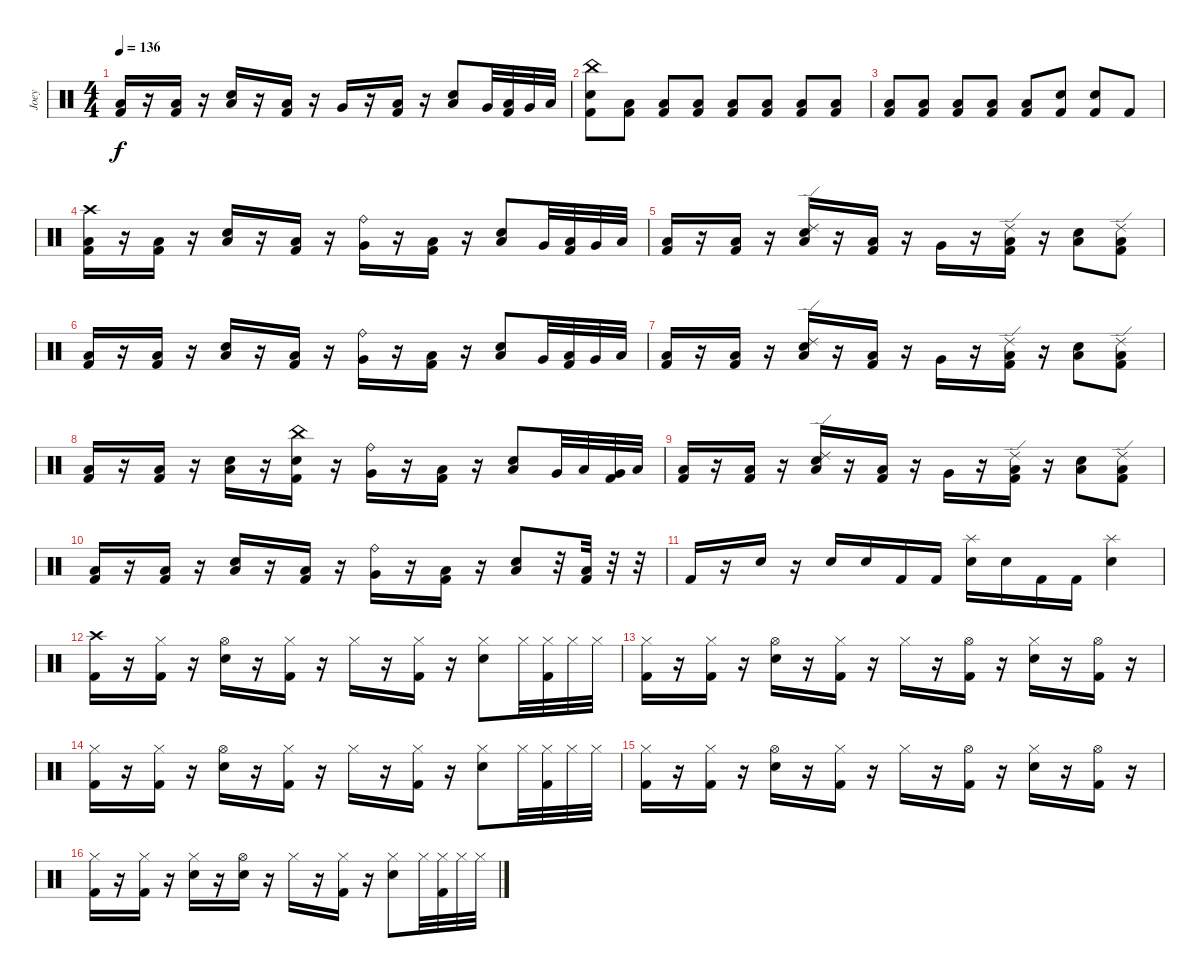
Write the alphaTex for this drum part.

\track ("Joey" "Joey") {instrument percussion}
\staff {score}
\articulation defaults
\ts (4 4)
\tempo 136
\clef neutral
\ks c
("Low Floor Tom (hit)" "Kick (hit) 2").16{dy f} r.16 ("Low Floor Tom (hit)" "Kick (hit) 2").16 r.16 ("Low Floor Tom (hit)" "Snare (hit) 2").16 r.16 ("Low Floor Tom (hit)" "Kick (hit) 2").16 r.16 "Very Low Tom (hit)".16 r.16 ("Low Floor Tom (hit)" "Kick (hit) 2").16 r.16 ("Low Floor Tom (hit)" "Snare (hit) 2").8 "Very Low Tom (hit)".32 ("Low Floor Tom (hit)" "Kick (hit) 2").32 "Very Low Tom (hit)".32 "Low Floor Tom (hit)".32 |
("China (hit)" "Snare (hit) 2" "Kick (hit) 2").8 ("Low Floor Tom (hit)" "Kick (hit) 2").8 ("Low Floor Tom (hit)" "Kick (hit) 2").8 ("Low Floor Tom (hit)" "Kick (hit) 2").8 ("Low Floor Tom (hit)" "Kick (hit) 2").8 ("Low Floor Tom (hit)" "Kick (hit) 2").8 ("Low Floor Tom (hit)" "Kick (hit) 2").8 ("Low Floor Tom (hit)" "Kick (hit) 2").8 |
("Low Floor Tom (hit)" "Kick (hit) 2").8 ("Low Floor Tom (hit)" "Kick (hit) 2").8 ("Low Floor Tom (hit)" "Kick (hit) 2").8 ("Low Floor Tom (hit)" "Kick (hit) 2").8 ("Low Floor Tom (hit)" "Kick (hit) 2").8 ("Snare (hit) 2" "Kick (hit) 2").8 ("Snare (hit) 2" "Kick (hit) 2").8 "Kick (hit) 2".8 |
("Crash high (hit)" "Low Floor Tom (hit)" "Kick (hit) 2").16 r.16 ("Low Floor Tom (hit)" "Kick (hit) 2").16 r.16 ("Low Floor Tom (hit)" "Snare (hit) 2").16 r.16 ("Low Floor Tom (hit)" "Kick (hit) 2").16 r.16 ("Ride (bell)" "Very Low Tom (hit)").16 r.16 ("Low Floor Tom (hit)" "Kick (hit) 2").16 r.16 ("Low Floor Tom (hit)" "Snare (hit) 2").8 "Very Low Tom (hit)".32 ("Low Floor Tom (hit)" "Kick (hit) 2").32 "Very Low Tom (hit)".32 "Low Floor Tom (hit)".32 |
("Low Floor Tom (hit)" "Kick (hit) 2").16 r.16 ("Low Floor Tom (hit)" "Kick (hit) 2").16 r.16 ("Ride (edge) 2" "Low Floor Tom (hit)" "Snare (hit) 2").16 r.16 ("Low Floor Tom (hit)" "Kick (hit) 2").16 r.16 "Very Low Tom (hit)".16 r.16 ("Ride (edge) 2" "Low Floor Tom (hit)" "Kick (hit) 2").16 r.16 ("Low Floor Tom (hit)" "Snare (hit) 2").8 ("Ride (edge) 2" "Low Floor Tom (hit)" "Kick (hit) 2").8 |
("Low Floor Tom (hit)" "Kick (hit) 2").16 r.16 ("Low Floor Tom (hit)" "Kick (hit) 2").16 r.16 ("Low Floor Tom (hit)" "Snare (hit) 2").16 r.16 ("Low Floor Tom (hit)" "Kick (hit) 2").16 r.16 ("Ride (bell)" "Very Low Tom (hit)").16 r.16 ("Low Floor Tom (hit)" "Kick (hit) 2").16 r.16 ("Low Floor Tom (hit)" "Snare (hit) 2").8 "Very Low Tom (hit)".32 ("Low Floor Tom (hit)" "Kick (hit) 2").32 "Very Low Tom (hit)".32 "Low Floor Tom (hit)".32 |
("Low Floor Tom (hit)" "Kick (hit) 2").16 r.16 ("Low Floor Tom (hit)" "Kick (hit) 2").16 r.16 ("Ride (edge) 2" "Low Floor Tom (hit)" "Snare (hit) 2").16 r.16 ("Low Floor Tom (hit)" "Kick (hit) 2").16 r.16 "Very Low Tom (hit)".16 r.16 ("Ride (edge) 2" "Low Floor Tom (hit)" "Kick (hit) 2").16 r.16 ("Low Floor Tom (hit)" "Snare (hit) 2").8 ("Ride (edge) 2" "Low Floor Tom (hit)" "Kick (hit) 2").8 |
("Low Floor Tom (hit)" "Kick (hit) 2").16 r.16 ("Low Floor Tom (hit)" "Kick (hit) 2").16 r.16 ("Low Floor Tom (hit)" "Snare (hit) 2").16 r.16 ("China (hit)" "Snare (hit) 2" "Kick (hit) 2").16 r.16 ("Ride (bell)" "Very Low Tom (hit)").16 r.16 ("Low Floor Tom (hit)" "Kick (hit) 2").16 r.16 ("Low Floor Tom (hit)" "Snare (hit) 2").8 "Very Low Tom (hit)".32 "Low Floor Tom (hit)".32 ("Very Low Tom (hit)" "Kick (hit) 2").32 "Low Floor Tom (hit)".32 |
("Low Floor Tom (hit)" "Kick (hit) 2").16 r.16 ("Low Floor Tom (hit)" "Kick (hit) 2").16 r.16 ("Ride (edge) 2" "Low Floor Tom (hit)" "Snare (hit) 2").16 r.16 ("Low Floor Tom (hit)" "Kick (hit) 2").16 r.16 "Very Low Tom (hit)".16 r.16 ("Ride (edge) 2" "Low Floor Tom (hit)" "Kick (hit) 2").16 r.16 ("Low Floor Tom (hit)" "Snare (hit) 2").8 ("Ride (edge) 2" "Low Floor Tom (hit)" "Kick (hit) 2").8 |
("Low Floor Tom (hit)" "Kick (hit) 2").16 r.16 ("Low Floor Tom (hit)" "Kick (hit) 2").16 r.16 ("Low Floor Tom (hit)" "Snare (hit) 2").16 r.16 ("Low Floor Tom (hit)" "Kick (hit) 2").16 r.16 ("Ride (bell)" "Very Low Tom (hit)").16 r.16 ("Low Floor Tom (hit)" "Kick (hit) 2").16 r.16 ("Low Floor Tom (hit)" "Snare (hit) 2").8 r.32 ("Low Floor Tom (hit)" "Kick (hit) 2").32 r.32 r.32 |
"Kick (hit) 2".16 r.16 "Snare (hit) 2".16 r.16 "Snare (hit) 2".16 "Snare (hit) 2".16 "Kick (hit) 2".16 "Kick (hit) 2".16 ("Splash (hit)" "Snare (hit) 2").16 "Snare (hit) 2".16 "Kick (hit) 2".16 "Kick (hit) 2".16 ("Splash (hit)" "Snare (hit) 2").4 |
("Crash high (hit)" "Kick (hit) 2").16 r.16 ("Hi-Hat (closed)" "Kick (hit) 2").16 r.16 ("Hi-Hat (open)" "Snare (hit) 2").16 r.16 ("Hi-Hat (closed)" "Kick (hit) 2").16 r.16 "Hi-Hat (closed)".16 r.16 ("Hi-Hat (closed)" "Kick (hit) 2").16 r.16 ("Hi-Hat (closed)" "Snare (hit) 2").8 "Hi-Hat (closed)".32 ("Hi-Hat (closed)" "Kick (hit) 2").32 "Hi-Hat (closed)".32 "Hi-Hat (closed)".32 |
("Hi-Hat (closed)" "Kick (hit) 2").16 r.16 ("Hi-Hat (closed)" "Kick (hit) 2").16 r.16 ("Hi-Hat (open)" "Snare (hit) 2").16 r.16 ("Hi-Hat (closed)" "Kick (hit) 2").16 r.16 "Hi-Hat (closed)".16 r.16 ("Hi-Hat (open)" "Kick (hit) 2").16 r.16 ("Hi-Hat (closed)" "Snare (hit) 2").16 r.16 ("Hi-Hat (open)" "Kick (hit) 2").16 r.16 |
("Hi-Hat (closed)" "Kick (hit) 2").16 r.16 ("Hi-Hat (closed)" "Kick (hit) 2").16 r.16 ("Hi-Hat (open)" "Snare (hit) 2").16 r.16 ("Hi-Hat (closed)" "Kick (hit) 2").16 r.16 "Hi-Hat (closed)".16 r.16 ("Hi-Hat (closed)" "Kick (hit) 2").16 r.16 ("Hi-Hat (closed)" "Snare (hit) 2").8 "Hi-Hat (closed)".32 ("Hi-Hat (closed)" "Kick (hit) 2").32 "Hi-Hat (closed)".32 "Hi-Hat (closed)".32 |
("Hi-Hat (closed)" "Kick (hit) 2").16 r.16 ("Hi-Hat (closed)" "Kick (hit) 2").16 r.16 ("Hi-Hat (open)" "Snare (hit) 2").16 r.16 ("Hi-Hat (closed)" "Kick (hit) 2").16 r.16 "Hi-Hat (closed)".16 r.16 ("Hi-Hat (open)" "Kick (hit) 2").16 r.16 ("Hi-Hat (closed)" "Snare (hit) 2").16 r.16 ("Hi-Hat (open)" "Kick (hit) 2").16 r.16 |
("Hi-Hat (closed)" "Kick (hit) 2").16 r.16 ("Hi-Hat (closed)" "Kick (hit) 2").16 r.16 ("Hi-Hat (closed)" "Snare (hit) 2").16 r.16 ("Hi-Hat (open)" "Snare (hit) 2").16 r.16 "Hi-Hat (closed)".16 r.16 ("Hi-Hat (closed)" "Kick (hit) 2").16 r.16 ("Hi-Hat (closed)" "Snare (hit) 2").8 "Hi-Hat (closed)".32 ("Hi-Hat (closed)" "Kick (hit) 2").32 "Hi-Hat (closed)".32 "Hi-Hat (closed)".32
